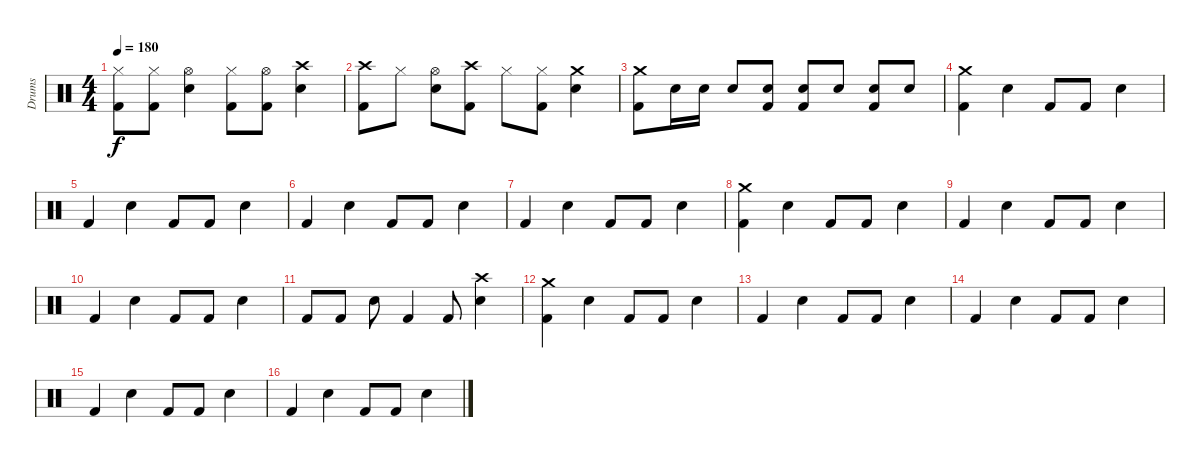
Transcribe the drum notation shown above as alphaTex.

\track ("Drums" "Drums") {instrument percussion}
\staff {score}
\articulation defaults
\ts (4 4)
\tempo 180
\clef neutral
\ks c
("Hi-Hat (closed)" "Kick (hit) 2").8{dy f} ("Hi-Hat (closed)" "Kick (hit) 2").8 ("Hi-Hat (open)" "Electric Snare (hit)").4 ("Hi-Hat (closed)" "Kick (hit) 2").8 ("Hi-Hat (open)" "Kick (hit) 2").8 ("Crash high (hit)" "Electric Snare (hit)").4 |
("Crash high (hit)" "Kick (hit) 2").8 "Hi-Hat (closed)".8 ("Hi-Hat (open)" "Electric Snare (hit)").8 ("Crash high (hit)" "Kick (hit) 2").8 "Hi-Hat (closed)".8 ("Hi-Hat (closed)" "Kick (hit) 2").8 ("Crash medium (hit)" "Electric Snare (hit)").4 |
("Crash medium (hit)" "Kick (hit) 2").8 "Electric Snare (hit)".16 "Electric Snare (hit)".16 "Electric Snare (hit)".8 ("Electric Snare (hit)" "Kick (hit) 2").8 ("Electric Snare (hit)" "Kick (hit) 2").8 "Electric Snare (hit)".8 ("Electric Snare (hit)" "Kick (hit) 2").8 "Electric Snare (hit)".8 |
\section ("" "")
("Crash medium (hit)" "Kick (hit) 2").4 "Electric Snare (hit)".4 "Kick (hit) 2".8 "Kick (hit) 2".8 "Electric Snare (hit)".4 |
"Kick (hit) 2".4 "Electric Snare (hit)".4 "Kick (hit) 2".8 "Kick (hit) 2".8 "Electric Snare (hit)".4 |
"Kick (hit) 2".4 "Electric Snare (hit)".4 "Kick (hit) 2".8 "Kick (hit) 2".8 "Electric Snare (hit)".4 |
"Kick (hit) 2".4 "Electric Snare (hit)".4 "Kick (hit) 2".8 "Kick (hit) 2".8 "Electric Snare (hit)".4 |
("Crash medium (hit)" "Kick (hit) 2").4 "Electric Snare (hit)".4 "Kick (hit) 2".8 "Kick (hit) 2".8 "Electric Snare (hit)".4 |
"Kick (hit) 2".4 "Electric Snare (hit)".4 "Kick (hit) 2".8 "Kick (hit) 2".8 "Electric Snare (hit)".4 |
"Kick (hit) 2".4 "Electric Snare (hit)".4 "Kick (hit) 2".8 "Kick (hit) 2".8 "Electric Snare (hit)".4 |
"Kick (hit) 2".8 "Kick (hit) 2".8 "Electric Snare (hit)".8 "Kick (hit) 2".4 "Kick (hit) 2".8 ("Crash high (hit)" "Electric Snare (hit)").4 |
("Crash medium (hit)" "Kick (hit) 2").4 "Electric Snare (hit)".4 "Kick (hit) 2".8 "Kick (hit) 2".8 "Electric Snare (hit)".4 |
"Kick (hit) 2".4 "Electric Snare (hit)".4 "Kick (hit) 2".8 "Kick (hit) 2".8 "Electric Snare (hit)".4 |
"Kick (hit) 2".4 "Electric Snare (hit)".4 "Kick (hit) 2".8 "Kick (hit) 2".8 "Electric Snare (hit)".4 |
"Kick (hit) 2".4 "Electric Snare (hit)".4 "Kick (hit) 2".8 "Kick (hit) 2".8 "Electric Snare (hit)".4 |
"Kick (hit) 2".4 "Electric Snare (hit)".4 "Kick (hit) 2".8 "Kick (hit) 2".8 "Electric Snare (hit)".4
